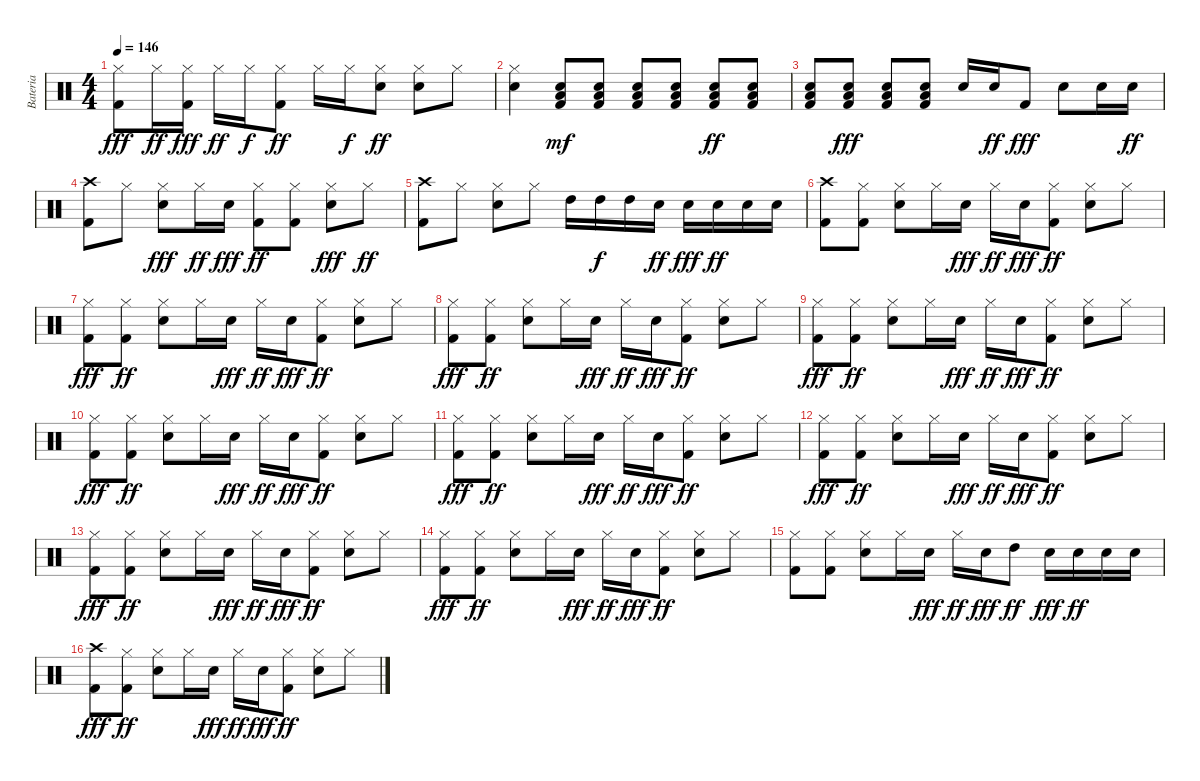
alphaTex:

\track ("Bateria" "Bateria") {instrument percussion}
\staff {score}
\articulation defaults
\ts (4 4)
\tempo 146
\clef neutral
\ks c
("Hi-Hat (closed)" "Kick (hit) 2").8{dy fff} "Hi-Hat (closed)".16{dy ff} ("Kick (hit) 2" "Hi-Hat (closed)").16{dy fff} "Hi-Hat (closed)".16{dy ff} "Hi-Hat (closed)".16{dy f} ("Kick (hit) 2" "Hi-Hat (closed)").8{dy ff} "Hi-Hat (closed)".16 "Hi-Hat (closed)".16{dy f} ("Electric Snare (hit)" "Hi-Hat (closed)").8{dy ff} ("Electric Snare (hit)" "Hi-Hat (closed)").8 "Hi-Hat (closed)".8 |
("Electric Snare (hit)" "Hi-Hat (closed)").4 ("Kick (hit) 2" "Low Floor Tom (hit)" "Electric Snare (hit)").8{dy mf} ("Kick (hit) 2" "Low Floor Tom (hit)" "Electric Snare (hit)").8 ("Kick (hit) 2" "Low Floor Tom (hit)" "Electric Snare (hit)").8 ("Kick (hit) 2" "Low Floor Tom (hit)" "Electric Snare (hit)").8 ("Kick (hit) 2" "Low Floor Tom (hit)" "Electric Snare (hit)").8{dy ff} ("Kick (hit) 2" "Low Floor Tom (hit)" "Electric Snare (hit)").8 |
("Low Floor Tom (hit)" "Electric Snare (hit)" "Kick (hit) 2").8 ("Low Floor Tom (hit)" "Electric Snare (hit)" "Kick (hit) 2").8{dy fff} ("Low Floor Tom (hit)" "Electric Snare (hit)" "Kick (hit) 2").8 ("Low Floor Tom (hit)" "Electric Snare (hit)" "Kick (hit) 2").8 "Electric Snare (hit)".16 "Electric Snare (hit)".16{dy ff} "Kick (hit) 2".8{dy fff} "Electric Snare (hit)".8 "Electric Snare (hit)".16 "Electric Snare (hit)".16{dy ff} |
("Kick (hit) 2" "Crash high (hit)").8 "Hi-Hat (closed)".8 ("Hi-Hat (closed)" "Electric Snare (hit)").8{dy fff} "Hi-Hat (closed)".16{dy ff} "Electric Snare (hit)".16{dy fff} ("Kick (hit) 2" "Hi-Hat (closed)").8{dy ff} ("Kick (hit) 2" "Hi-Hat (closed)").8 ("Hi-Hat (closed)" "Electric Snare (hit)").8{dy fff} "Hi-Hat (closed)".8{dy ff} |
("Kick (hit) 2" "Crash high (hit)").8 "Hi-Hat (closed)".8 ("Electric Snare (hit)" "Hi-Hat (closed)").8 "Hi-Hat (closed)".8 "High Tom (hit)".16 "High Tom (hit)".16{dy f} "High Tom (hit)".16 "Electric Snare (hit)".16{dy ff} "Electric Snare (hit)".16{dy fff} "Electric Snare (hit)".16{dy ff} "Electric Snare (hit)".16 "Electric Snare (hit)".16 |
("Kick (hit) 2" "Crash high (hit)").8 ("Kick (hit) 2" "Hi-Hat (closed)").8 ("Electric Snare (hit)" "Hi-Hat (closed)").8 "Hi-Hat (closed)".16 "Electric Snare (hit)".16{dy fff} "Hi-Hat (closed)".16{dy ff} "Electric Snare (hit)".16{dy fff} ("Kick (hit) 2" "Hi-Hat (closed)").8{dy ff} ("Electric Snare (hit)" "Hi-Hat (closed)").8 "Hi-Hat (closed)".8 |
("Hi-Hat (closed)" "Kick (hit) 2").8{dy fff} ("Kick (hit) 2" "Hi-Hat (closed)").8{dy ff} ("Electric Snare (hit)" "Hi-Hat (closed)").8 "Hi-Hat (closed)".16 "Electric Snare (hit)".16{dy fff} "Hi-Hat (closed)".16{dy ff} "Electric Snare (hit)".16{dy fff} ("Kick (hit) 2" "Hi-Hat (closed)").8{dy ff} ("Electric Snare (hit)" "Hi-Hat (closed)").8 "Hi-Hat (closed)".8 |
("Hi-Hat (closed)" "Kick (hit) 2").8{dy fff} ("Kick (hit) 2" "Hi-Hat (closed)").8{dy ff} ("Electric Snare (hit)" "Hi-Hat (closed)").8 "Hi-Hat (closed)".16 "Electric Snare (hit)".16{dy fff} "Hi-Hat (closed)".16{dy ff} "Electric Snare (hit)".16{dy fff} ("Kick (hit) 2" "Hi-Hat (closed)").8{dy ff} ("Electric Snare (hit)" "Hi-Hat (closed)").8 "Hi-Hat (closed)".8 |
("Hi-Hat (closed)" "Kick (hit) 2").8{dy fff} ("Kick (hit) 2" "Hi-Hat (closed)").8{dy ff} ("Electric Snare (hit)" "Hi-Hat (closed)").8 "Hi-Hat (closed)".16 "Electric Snare (hit)".16{dy fff} "Hi-Hat (closed)".16{dy ff} "Electric Snare (hit)".16{dy fff} ("Kick (hit) 2" "Hi-Hat (closed)").8{dy ff} ("Electric Snare (hit)" "Hi-Hat (closed)").8 "Hi-Hat (closed)".8 |
("Hi-Hat (closed)" "Kick (hit) 2").8{dy fff} ("Kick (hit) 2" "Hi-Hat (closed)").8{dy ff} ("Electric Snare (hit)" "Hi-Hat (closed)").8 "Hi-Hat (closed)".16 "Electric Snare (hit)".16{dy fff} "Hi-Hat (closed)".16{dy ff} "Electric Snare (hit)".16{dy fff} ("Kick (hit) 2" "Hi-Hat (closed)").8{dy ff} ("Electric Snare (hit)" "Hi-Hat (closed)").8 "Hi-Hat (closed)".8 |
("Hi-Hat (closed)" "Kick (hit) 2").8{dy fff} ("Kick (hit) 2" "Hi-Hat (closed)").8{dy ff} ("Electric Snare (hit)" "Hi-Hat (closed)").8 "Hi-Hat (closed)".16 "Electric Snare (hit)".16{dy fff} "Hi-Hat (closed)".16{dy ff} "Electric Snare (hit)".16{dy fff} ("Kick (hit) 2" "Hi-Hat (closed)").8{dy ff} ("Electric Snare (hit)" "Hi-Hat (closed)").8 "Hi-Hat (closed)".8 |
("Hi-Hat (closed)" "Kick (hit) 2").8{dy fff} ("Kick (hit) 2" "Hi-Hat (closed)").8{dy ff} ("Electric Snare (hit)" "Hi-Hat (closed)").8 "Hi-Hat (closed)".16 "Electric Snare (hit)".16{dy fff} "Hi-Hat (closed)".16{dy ff} "Electric Snare (hit)".16{dy fff} ("Kick (hit) 2" "Hi-Hat (closed)").8{dy ff} ("Electric Snare (hit)" "Hi-Hat (closed)").8 "Hi-Hat (closed)".8 |
("Hi-Hat (closed)" "Kick (hit) 2").8{dy fff} ("Kick (hit) 2" "Hi-Hat (closed)").8{dy ff} ("Electric Snare (hit)" "Hi-Hat (closed)").8 "Hi-Hat (closed)".16 "Electric Snare (hit)".16{dy fff} "Hi-Hat (closed)".16{dy ff} "Electric Snare (hit)".16{dy fff} ("Kick (hit) 2" "Hi-Hat (closed)").8{dy ff} ("Electric Snare (hit)" "Hi-Hat (closed)").8 "Hi-Hat (closed)".8 |
("Hi-Hat (closed)" "Kick (hit) 2").8{dy fff} ("Kick (hit) 2" "Hi-Hat (closed)").8{dy ff} ("Electric Snare (hit)" "Hi-Hat (closed)").8 "Hi-Hat (closed)".16 "Electric Snare (hit)".16{dy fff} "Hi-Hat (closed)".16{dy ff} "Electric Snare (hit)".16{dy fff} ("Kick (hit) 2" "Hi-Hat (closed)").8{dy ff} ("Electric Snare (hit)" "Hi-Hat (closed)").8 "Hi-Hat (closed)".8 |
("Kick (hit) 2" "Hi-Hat (closed)").8 ("Kick (hit) 2" "Hi-Hat (closed)").8 ("Electric Snare (hit)" "Hi-Hat (closed)").8 "Hi-Hat (closed)".16 "Electric Snare (hit)".16{dy fff} "Hi-Hat (closed)".16{dy ff} "Electric Snare (hit)".16{dy fff} "High Tom (hit)".8{dy ff} "Electric Snare (hit)".16{dy fff} "Electric Snare (hit)".16{dy ff} "Electric Snare (hit)".16 "Electric Snare (hit)".16 |
("Crash high (hit)" "Kick (hit) 2").8{dy fff} ("Kick (hit) 2" "Hi-Hat (closed)").8{dy ff} ("Electric Snare (hit)" "Hi-Hat (closed)").8 "Hi-Hat (closed)".16 "Electric Snare (hit)".16{dy fff} "Hi-Hat (closed)".16{dy ff} "Electric Snare (hit)".16{dy fff} ("Kick (hit) 2" "Hi-Hat (closed)").8{dy ff} ("Electric Snare (hit)" "Hi-Hat (closed)").8 "Hi-Hat (closed)".8
